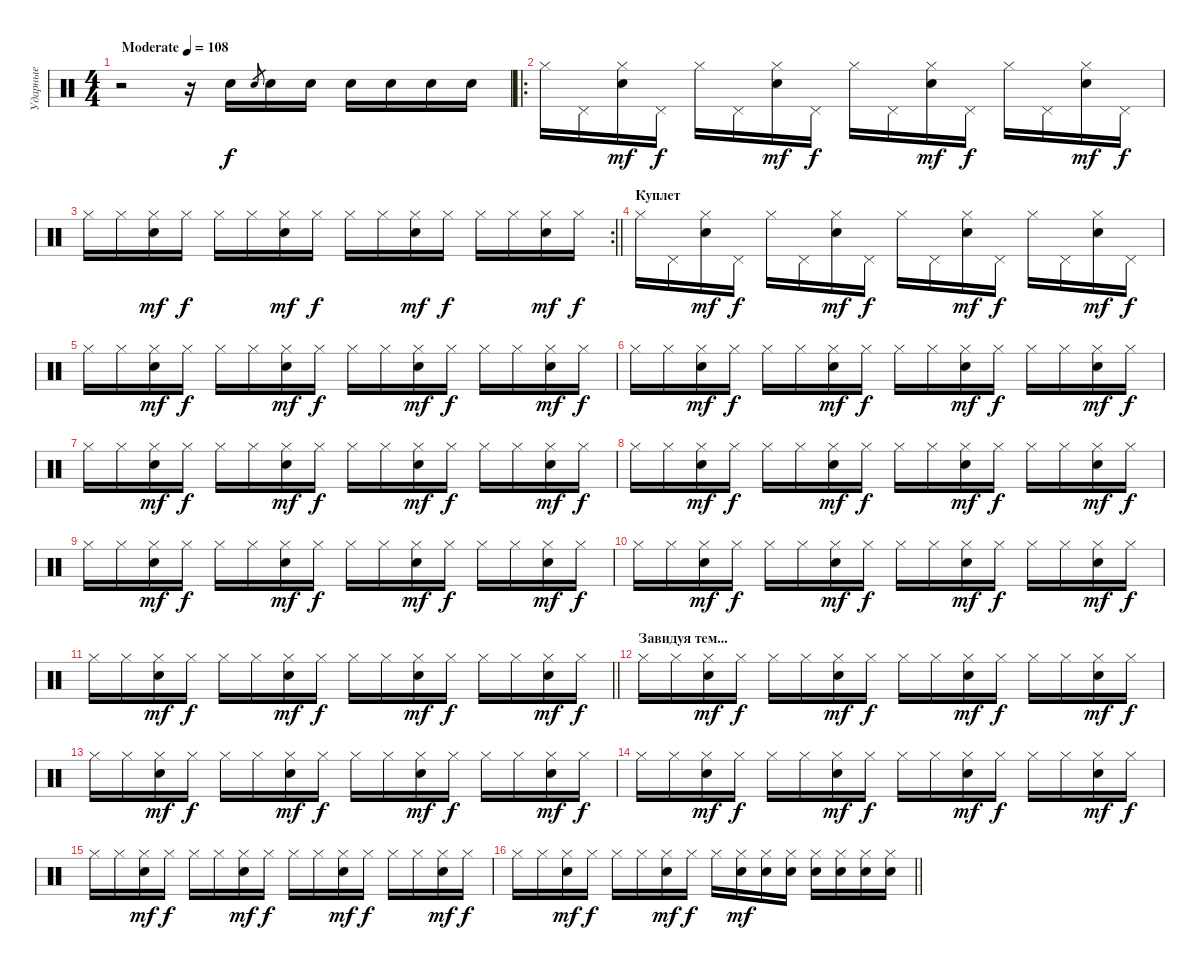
\track ("Ударные" "Ударные") {instrument percussion}
\staff {score}
\articulation defaults
\ts (4 4)
\tempo (108 "Moderate")
\clef neutral
\ks c
r.2{dy f} r.16 "Snare (hit) 2".16 "Snare (hit) 2".8{gr} "Snare (hit) 2".16 "Snare (hit) 2".16 "Snare (hit) 2".16 "Snare (hit) 2".16 "Snare (hit) 2".16 "Snare (hit) 2".16 |
\ro "Hi-Hat (closed)".16 "Pedal Hi-Hat (hit)".16
("Hi-Hat (closed)" "Snare (hit) 2").16{dy mf} "Pedal Hi-Hat (hit)".16{dy f} "Hi-Hat (closed)".16 "Pedal Hi-Hat (hit)".16 ("Hi-Hat (closed)" "Snare (hit) 2").16{dy mf} "Pedal Hi-Hat (hit)".16{dy f} "Hi-Hat (closed)".16 "Pedal Hi-Hat (hit)".16 ("Hi-Hat (closed)" "Snare (hit) 2").16{dy mf} "Pedal Hi-Hat (hit)".16{dy f} "Hi-Hat (closed)".16 "Pedal Hi-Hat (hit)".16 ("Hi-Hat (closed)" "Snare (hit) 2").16{dy mf} "Pedal Hi-Hat (hit)".16{dy f} |
\rc 2
\barLineRight lightlight "Hi-Hat (closed)".16 "Hi-Hat (closed)".16
("Hi-Hat (closed)" "Snare (hit) 2").16{dy mf} "Hi-Hat (closed)".16{dy f} "Hi-Hat (closed)".16 "Hi-Hat (closed)".16 ("Hi-Hat (closed)" "Snare (hit) 2").16{dy mf} "Hi-Hat (closed)".16{dy f} "Hi-Hat (closed)".16 "Hi-Hat (closed)".16 ("Hi-Hat (closed)" "Snare (hit) 2").16{dy mf} "Hi-Hat (closed)".16{dy f} "Hi-Hat (closed)".16 "Hi-Hat (closed)".16 ("Hi-Hat (closed)" "Snare (hit) 2").16{dy mf} "Hi-Hat (closed)".16{dy f} |
\section ("" "Куплет")
"Hi-Hat (closed)".16 "Pedal Hi-Hat (hit)".16 ("Hi-Hat (closed)" "Snare (hit) 2").16{dy mf} "Pedal Hi-Hat (hit)".16{dy f} "Hi-Hat (closed)".16 "Pedal Hi-Hat (hit)".16 ("Hi-Hat (closed)" "Snare (hit) 2").16{dy mf} "Pedal Hi-Hat (hit)".16{dy f} "Hi-Hat (closed)".16 "Pedal Hi-Hat (hit)".16 ("Hi-Hat (closed)" "Snare (hit) 2").16{dy mf} "Pedal Hi-Hat (hit)".16{dy f} "Hi-Hat (closed)".16 "Pedal Hi-Hat (hit)".16 ("Hi-Hat (closed)" "Snare (hit) 2").16{dy mf} "Pedal Hi-Hat (hit)".16{dy f} |
"Hi-Hat (closed)".16 "Hi-Hat (closed)".16 ("Hi-Hat (closed)" "Snare (hit) 2").16{dy mf} "Hi-Hat (closed)".16{dy f} "Hi-Hat (closed)".16 "Hi-Hat (closed)".16 ("Hi-Hat (closed)" "Snare (hit) 2").16{dy mf} "Hi-Hat (closed)".16{dy f} "Hi-Hat (closed)".16 "Hi-Hat (closed)".16 ("Hi-Hat (closed)" "Snare (hit) 2").16{dy mf} "Hi-Hat (closed)".16{dy f} "Hi-Hat (closed)".16 "Hi-Hat (closed)".16 ("Hi-Hat (closed)" "Snare (hit) 2").16{dy mf} "Hi-Hat (closed)".16{dy f} |
"Hi-Hat (closed)".16 "Hi-Hat (closed)".16 ("Hi-Hat (closed)" "Snare (hit) 2").16{dy mf} "Hi-Hat (closed)".16{dy f} "Hi-Hat (closed)".16 "Hi-Hat (closed)".16 ("Hi-Hat (closed)" "Snare (hit) 2").16{dy mf} "Hi-Hat (closed)".16{dy f} "Hi-Hat (closed)".16 "Hi-Hat (closed)".16 ("Hi-Hat (closed)" "Snare (hit) 2").16{dy mf} "Hi-Hat (closed)".16{dy f} "Hi-Hat (closed)".16 "Hi-Hat (closed)".16 ("Hi-Hat (closed)" "Snare (hit) 2").16{dy mf} "Hi-Hat (closed)".16{dy f} |
"Hi-Hat (closed)".16 "Hi-Hat (closed)".16 ("Hi-Hat (closed)" "Snare (hit) 2").16{dy mf} "Hi-Hat (closed)".16{dy f} "Hi-Hat (closed)".16 "Hi-Hat (closed)".16 ("Hi-Hat (closed)" "Snare (hit) 2").16{dy mf} "Hi-Hat (closed)".16{dy f} "Hi-Hat (closed)".16 "Hi-Hat (closed)".16 ("Hi-Hat (closed)" "Snare (hit) 2").16{dy mf} "Hi-Hat (closed)".16{dy f} "Hi-Hat (closed)".16 "Hi-Hat (closed)".16 ("Hi-Hat (closed)" "Snare (hit) 2").16{dy mf} "Hi-Hat (closed)".16{dy f} |
"Hi-Hat (closed)".16 "Hi-Hat (closed)".16 ("Hi-Hat (closed)" "Snare (hit) 2").16{dy mf} "Hi-Hat (closed)".16{dy f} "Hi-Hat (closed)".16 "Hi-Hat (closed)".16 ("Hi-Hat (closed)" "Snare (hit) 2").16{dy mf} "Hi-Hat (closed)".16{dy f} "Hi-Hat (closed)".16 "Hi-Hat (closed)".16 ("Hi-Hat (closed)" "Snare (hit) 2").16{dy mf} "Hi-Hat (closed)".16{dy f} "Hi-Hat (closed)".16 "Hi-Hat (closed)".16 ("Hi-Hat (closed)" "Snare (hit) 2").16{dy mf} "Hi-Hat (closed)".16{dy f} |
"Hi-Hat (closed)".16 "Hi-Hat (closed)".16 ("Hi-Hat (closed)" "Snare (hit) 2").16{dy mf} "Hi-Hat (closed)".16{dy f} "Hi-Hat (closed)".16 "Hi-Hat (closed)".16 ("Hi-Hat (closed)" "Snare (hit) 2").16{dy mf} "Hi-Hat (closed)".16{dy f} "Hi-Hat (closed)".16 "Hi-Hat (closed)".16 ("Hi-Hat (closed)" "Snare (hit) 2").16{dy mf} "Hi-Hat (closed)".16{dy f} "Hi-Hat (closed)".16 "Hi-Hat (closed)".16 ("Hi-Hat (closed)" "Snare (hit) 2").16{dy mf} "Hi-Hat (closed)".16{dy f} |
"Hi-Hat (closed)".16 "Hi-Hat (closed)".16 ("Hi-Hat (closed)" "Snare (hit) 2").16{dy mf} "Hi-Hat (closed)".16{dy f} "Hi-Hat (closed)".16 "Hi-Hat (closed)".16 ("Hi-Hat (closed)" "Snare (hit) 2").16{dy mf} "Hi-Hat (closed)".16{dy f} "Hi-Hat (closed)".16 "Hi-Hat (closed)".16 ("Hi-Hat (closed)" "Snare (hit) 2").16{dy mf} "Hi-Hat (closed)".16{dy f} "Hi-Hat (closed)".16 "Hi-Hat (closed)".16 ("Hi-Hat (closed)" "Snare (hit) 2").16{dy mf} "Hi-Hat (closed)".16{dy f} |
\barLineRight lightlight "Hi-Hat (closed)".16 "Hi-Hat (closed)".16
("Hi-Hat (closed)" "Snare (hit) 2").16{dy mf} "Hi-Hat (closed)".16{dy f} "Hi-Hat (closed)".16 "Hi-Hat (closed)".16 ("Hi-Hat (closed)" "Snare (hit) 2").16{dy mf} "Hi-Hat (closed)".16{dy f} "Hi-Hat (closed)".16 "Hi-Hat (closed)".16 ("Hi-Hat (closed)" "Snare (hit) 2").16{dy mf} "Hi-Hat (closed)".16{dy f} "Hi-Hat (closed)".16 "Hi-Hat (closed)".16 ("Hi-Hat (closed)" "Snare (hit) 2").16{dy mf} "Hi-Hat (closed)".16{dy f} |
\section ("" "Завидуя тем...")
"Hi-Hat (closed)".16 "Hi-Hat (closed)".16 ("Hi-Hat (closed)" "Snare (hit) 2").16{dy mf} "Hi-Hat (closed)".16{dy f} "Hi-Hat (closed)".16 "Hi-Hat (closed)".16 ("Hi-Hat (closed)" "Snare (hit) 2").16{dy mf} "Hi-Hat (closed)".16{dy f} "Hi-Hat (closed)".16 "Hi-Hat (closed)".16 ("Hi-Hat (closed)" "Snare (hit) 2").16{dy mf} "Hi-Hat (closed)".16{dy f} "Hi-Hat (closed)".16 "Hi-Hat (closed)".16 ("Hi-Hat (closed)" "Snare (hit) 2").16{dy mf} "Hi-Hat (closed)".16{dy f} |
"Hi-Hat (closed)".16 "Hi-Hat (closed)".16 ("Hi-Hat (closed)" "Snare (hit) 2").16{dy mf} "Hi-Hat (closed)".16{dy f} "Hi-Hat (closed)".16 "Hi-Hat (closed)".16 ("Hi-Hat (closed)" "Snare (hit) 2").16{dy mf} "Hi-Hat (closed)".16{dy f} "Hi-Hat (closed)".16 "Hi-Hat (closed)".16 ("Hi-Hat (closed)" "Snare (hit) 2").16{dy mf} "Hi-Hat (closed)".16{dy f} "Hi-Hat (closed)".16 "Hi-Hat (closed)".16 ("Hi-Hat (closed)" "Snare (hit) 2").16{dy mf} "Hi-Hat (closed)".16{dy f} |
"Hi-Hat (closed)".16 "Hi-Hat (closed)".16 ("Hi-Hat (closed)" "Snare (hit) 2").16{dy mf} "Hi-Hat (closed)".16{dy f} "Hi-Hat (closed)".16 "Hi-Hat (closed)".16 ("Hi-Hat (closed)" "Snare (hit) 2").16{dy mf} "Hi-Hat (closed)".16{dy f} "Hi-Hat (closed)".16 "Hi-Hat (closed)".16 ("Hi-Hat (closed)" "Snare (hit) 2").16{dy mf} "Hi-Hat (closed)".16{dy f} "Hi-Hat (closed)".16 "Hi-Hat (closed)".16 ("Hi-Hat (closed)" "Snare (hit) 2").16{dy mf} "Hi-Hat (closed)".16{dy f} |
"Hi-Hat (closed)".16 "Hi-Hat (closed)".16 ("Hi-Hat (closed)" "Snare (hit) 2").16{dy mf} "Hi-Hat (closed)".16{dy f} "Hi-Hat (closed)".16 "Hi-Hat (closed)".16 ("Hi-Hat (closed)" "Snare (hit) 2").16{dy mf} "Hi-Hat (closed)".16{dy f} "Hi-Hat (closed)".16 "Hi-Hat (closed)".16 ("Hi-Hat (closed)" "Snare (hit) 2").16{dy mf} "Hi-Hat (closed)".16{dy f} "Hi-Hat (closed)".16 "Hi-Hat (closed)".16 ("Hi-Hat (closed)" "Snare (hit) 2").16{dy mf} "Hi-Hat (closed)".16{dy f} |
\barLineRight lightlight "Hi-Hat (closed)".16 "Hi-Hat (closed)".16
("Hi-Hat (closed)" "Snare (hit) 2").16{dy mf} "Hi-Hat (closed)".16{dy f} "Hi-Hat (closed)".16 "Hi-Hat (closed)".16 ("Hi-Hat (closed)" "Snare (hit) 2").16{dy mf} "Hi-Hat (closed)".16{dy f} "Hi-Hat (closed)".16 ("Hi-Hat (closed)" "Snare (hit) 2").16{dy mf} ("Hi-Hat (closed)" "Snare (hit) 2").16 ("Hi-Hat (closed)" "Snare (hit) 2").16 ("Hi-Hat (closed)" "Snare (hit) 2").16 ("Hi-Hat (closed)" "Snare (hit) 2").16 ("Hi-Hat (closed)" "Snare (hit) 2").16 ("Hi-Hat (closed)" "Snare (hit) 2").16
